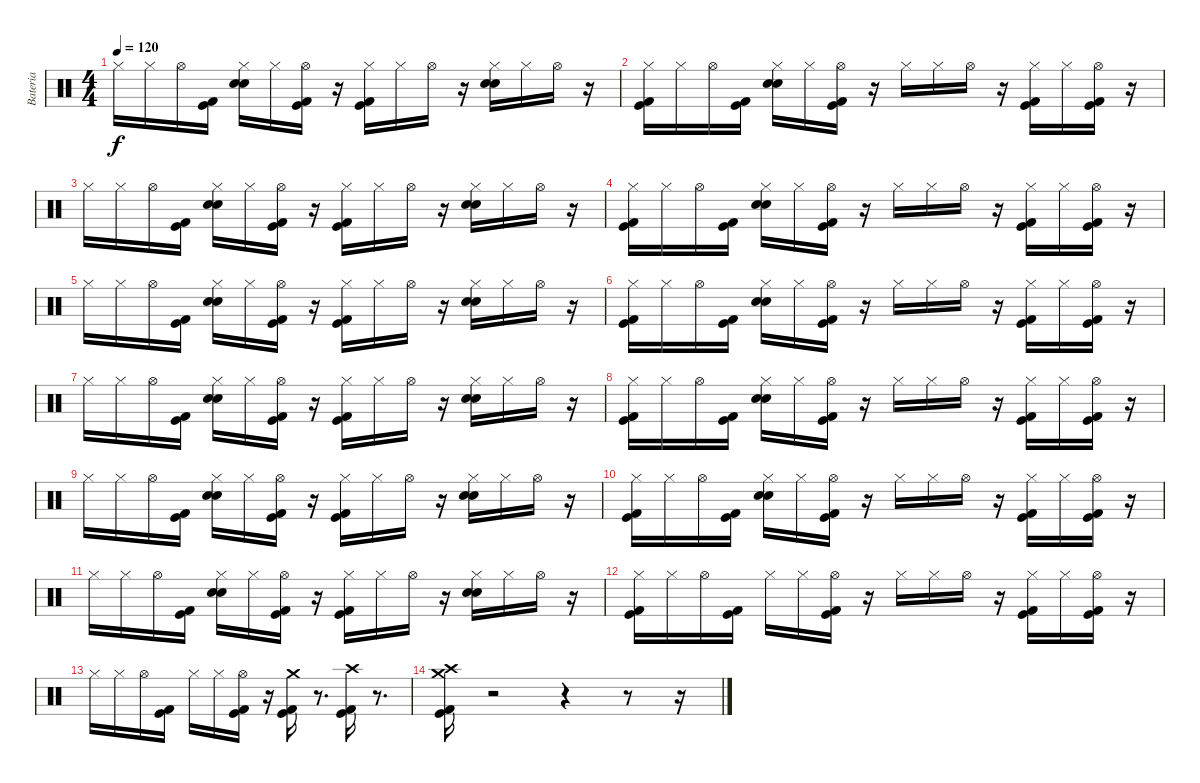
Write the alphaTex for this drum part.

\track ("Bateria" "Bateria") {instrument percussion}
\staff {score}
\articulation defaults
\ts (4 4)
\tempo 120
\clef neutral
\ks c "Hi-Hat (closed)".16{dy f} "Hi-Hat (closed)".16 "Hi-Hat (open)".16
("Kick (hit) 2" "Kick (hit)").16 ("Electric Snare (hit)" "Snare (hit) 2" "Hi-Hat (closed)").16 "Hi-Hat (closed)".16 ("Kick (hit) 2" "Kick (hit)" "Hi-Hat (open)").16 r.16 ("Kick (hit) 2" "Kick (hit)" "Hi-Hat (closed)").16 "Hi-Hat (closed)".16 "Hi-Hat (open)".16 r.16 ("Snare (hit) 2" "Electric Snare (hit)" "Hi-Hat (closed)").16 "Hi-Hat (closed)".16 "Hi-Hat (open)".16 r.16 |
("Hi-Hat (closed)" "Kick (hit) 2" "Kick (hit)").16 "Hi-Hat (closed)".16 "Hi-Hat (open)".16 ("Kick (hit) 2" "Kick (hit)").16 ("Hi-Hat (closed)" "Electric Snare (hit)" "Snare (hit) 2").16 "Hi-Hat (closed)".16 ("Kick (hit) 2" "Kick (hit)" "Hi-Hat (open)").16 r.16 "Hi-Hat (closed)".16 "Hi-Hat (closed)".16 "Hi-Hat (open)".16 r.16 ("Kick (hit) 2" "Kick (hit)" "Hi-Hat (closed)").16 "Hi-Hat (closed)".16 ("Kick (hit) 2" "Kick (hit)" "Hi-Hat (open)").16 r.16 |
"Hi-Hat (closed)".16 "Hi-Hat (closed)".16 "Hi-Hat (open)".16 ("Kick (hit) 2" "Kick (hit)").16 ("Electric Snare (hit)" "Snare (hit) 2" "Hi-Hat (closed)").16 "Hi-Hat (closed)".16 ("Kick (hit) 2" "Kick (hit)" "Hi-Hat (open)").16 r.16 ("Kick (hit) 2" "Kick (hit)" "Hi-Hat (closed)").16 "Hi-Hat (closed)".16 "Hi-Hat (open)".16 r.16 ("Snare (hit) 2" "Electric Snare (hit)" "Hi-Hat (closed)").16 "Hi-Hat (closed)".16 "Hi-Hat (open)".16 r.16 |
("Hi-Hat (closed)" "Kick (hit) 2" "Kick (hit)").16 "Hi-Hat (closed)".16 "Hi-Hat (open)".16 ("Kick (hit) 2" "Kick (hit)").16 ("Hi-Hat (closed)" "Electric Snare (hit)" "Snare (hit) 2").16 "Hi-Hat (closed)".16 ("Kick (hit) 2" "Kick (hit)" "Hi-Hat (open)").16 r.16 "Hi-Hat (closed)".16 "Hi-Hat (closed)".16 "Hi-Hat (open)".16 r.16 ("Kick (hit) 2" "Kick (hit)" "Hi-Hat (closed)").16 "Hi-Hat (closed)".16 ("Kick (hit) 2" "Kick (hit)" "Hi-Hat (open)").16 r.16 |
"Hi-Hat (closed)".16 "Hi-Hat (closed)".16 "Hi-Hat (open)".16 ("Kick (hit) 2" "Kick (hit)").16 ("Electric Snare (hit)" "Snare (hit) 2" "Hi-Hat (closed)").16 "Hi-Hat (closed)".16 ("Kick (hit) 2" "Kick (hit)" "Hi-Hat (open)").16 r.16 ("Kick (hit) 2" "Kick (hit)" "Hi-Hat (closed)").16 "Hi-Hat (closed)".16 "Hi-Hat (open)".16 r.16 ("Snare (hit) 2" "Electric Snare (hit)" "Hi-Hat (closed)").16 "Hi-Hat (closed)".16 "Hi-Hat (open)".16 r.16 |
("Hi-Hat (closed)" "Kick (hit) 2" "Kick (hit)").16 "Hi-Hat (closed)".16 "Hi-Hat (open)".16 ("Kick (hit) 2" "Kick (hit)").16 ("Hi-Hat (closed)" "Electric Snare (hit)" "Snare (hit) 2").16 "Hi-Hat (closed)".16 ("Kick (hit) 2" "Kick (hit)" "Hi-Hat (open)").16 r.16 "Hi-Hat (closed)".16 "Hi-Hat (closed)".16 "Hi-Hat (open)".16 r.16 ("Kick (hit) 2" "Kick (hit)" "Hi-Hat (closed)").16 "Hi-Hat (closed)".16 ("Kick (hit) 2" "Kick (hit)" "Hi-Hat (open)").16 r.16 |
"Hi-Hat (closed)".16 "Hi-Hat (closed)".16 "Hi-Hat (open)".16 ("Kick (hit) 2" "Kick (hit)").16 ("Electric Snare (hit)" "Snare (hit) 2" "Hi-Hat (closed)").16 "Hi-Hat (closed)".16 ("Kick (hit) 2" "Kick (hit)" "Hi-Hat (open)").16 r.16 ("Kick (hit) 2" "Kick (hit)" "Hi-Hat (closed)").16 "Hi-Hat (closed)".16 "Hi-Hat (open)".16 r.16 ("Snare (hit) 2" "Electric Snare (hit)" "Hi-Hat (closed)").16 "Hi-Hat (closed)".16 "Hi-Hat (open)".16 r.16 |
("Hi-Hat (closed)" "Kick (hit) 2" "Kick (hit)").16 "Hi-Hat (closed)".16 "Hi-Hat (open)".16 ("Kick (hit) 2" "Kick (hit)").16 ("Hi-Hat (closed)" "Electric Snare (hit)" "Snare (hit) 2").16 "Hi-Hat (closed)".16 ("Kick (hit) 2" "Kick (hit)" "Hi-Hat (open)").16 r.16 "Hi-Hat (closed)".16 "Hi-Hat (closed)".16 "Hi-Hat (open)".16 r.16 ("Kick (hit) 2" "Kick (hit)" "Hi-Hat (closed)").16 "Hi-Hat (closed)".16 ("Kick (hit) 2" "Kick (hit)" "Hi-Hat (open)").16 r.16 |
"Hi-Hat (closed)".16 "Hi-Hat (closed)".16 "Hi-Hat (open)".16 ("Kick (hit) 2" "Kick (hit)").16 ("Electric Snare (hit)" "Snare (hit) 2" "Hi-Hat (closed)").16 "Hi-Hat (closed)".16 ("Kick (hit) 2" "Kick (hit)" "Hi-Hat (open)").16 r.16 ("Kick (hit) 2" "Kick (hit)" "Hi-Hat (closed)").16 "Hi-Hat (closed)".16 "Hi-Hat (open)".16 r.16 ("Snare (hit) 2" "Electric Snare (hit)" "Hi-Hat (closed)").16 "Hi-Hat (closed)".16 "Hi-Hat (open)".16 r.16 |
("Hi-Hat (closed)" "Kick (hit) 2" "Kick (hit)").16 "Hi-Hat (closed)".16 "Hi-Hat (open)".16 ("Kick (hit) 2" "Kick (hit)").16 ("Hi-Hat (closed)" "Electric Snare (hit)" "Snare (hit) 2").16 "Hi-Hat (closed)".16 ("Kick (hit) 2" "Kick (hit)" "Hi-Hat (open)").16 r.16 "Hi-Hat (closed)".16 "Hi-Hat (closed)".16 "Hi-Hat (open)".16 r.16 ("Kick (hit) 2" "Kick (hit)" "Hi-Hat (closed)").16 "Hi-Hat (closed)".16 ("Kick (hit) 2" "Kick (hit)" "Hi-Hat (open)").16 r.16 |
"Hi-Hat (closed)".16 "Hi-Hat (closed)".16 "Hi-Hat (open)".16 ("Kick (hit) 2" "Kick (hit)").16 ("Electric Snare (hit)" "Snare (hit) 2" "Hi-Hat (closed)").16 "Hi-Hat (closed)".16 ("Kick (hit) 2" "Kick (hit)" "Hi-Hat (open)").16 r.16 ("Kick (hit) 2" "Kick (hit)" "Hi-Hat (closed)").16 "Hi-Hat (closed)".16 "Hi-Hat (open)".16 r.16 ("Snare (hit) 2" "Electric Snare (hit)" "Hi-Hat (closed)").16 "Hi-Hat (closed)".16 "Hi-Hat (open)".16 r.16 |
("Hi-Hat (closed)" "Kick (hit) 2" "Kick (hit)").16 "Hi-Hat (closed)".16 "Hi-Hat (open)".16 ("Kick (hit) 2" "Kick (hit)").16 "Hi-Hat (closed)".16 "Hi-Hat (closed)".16 ("Kick (hit) 2" "Kick (hit)" "Hi-Hat (open)").16 r.16 "Hi-Hat (closed)".16 "Hi-Hat (closed)".16 "Hi-Hat (open)".16 r.16 ("Kick (hit) 2" "Kick (hit)" "Hi-Hat (closed)").16 "Hi-Hat (closed)".16 ("Kick (hit) 2" "Kick (hit)" "Hi-Hat (open)").16 r.16 |
"Hi-Hat (closed)".16 "Hi-Hat (closed)".16 "Hi-Hat (open)".16 ("Kick (hit) 2" "Kick (hit)").16 "Hi-Hat (closed)".16 "Hi-Hat (closed)".16 ("Kick (hit) 2" "Kick (hit)" "Hi-Hat (open)").16 r.16 ("Crash medium (hit)" "Kick (hit) 2" "Kick (hit)").16 r.8{d} ("Crash high (hit)" "Kick (hit) 2" "Kick (hit)").16 r.8{d} |
("Crash medium (hit)" "Crash high (hit)" "Kick (hit) 2" "Kick (hit)").16 r.2 r.4 r.8 r.16
